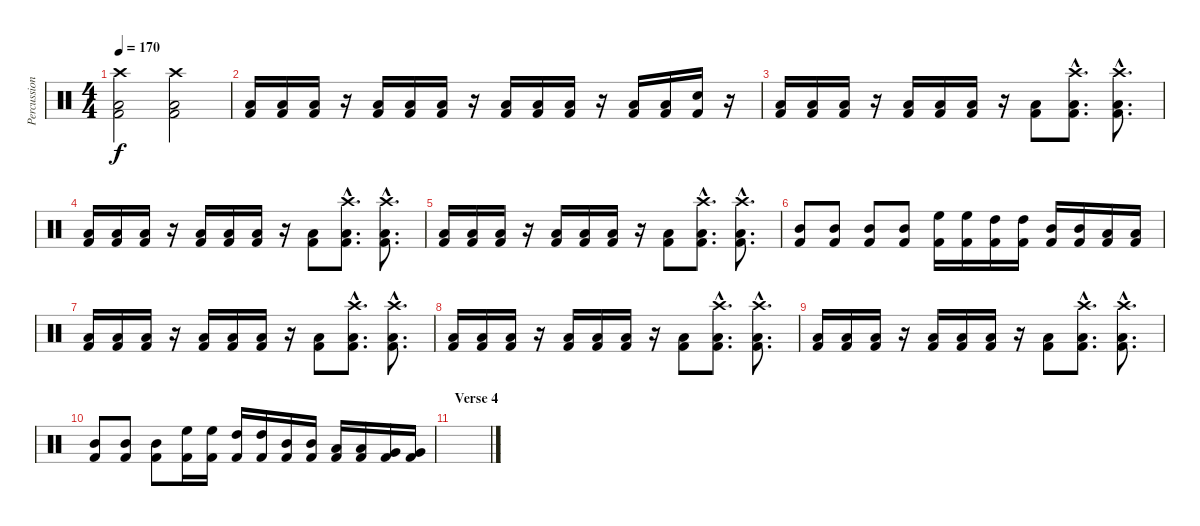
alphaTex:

\track ("Percussion" "Percussion") {instrument percussion}
\staff {score}
\articulation defaults
\ts (4 4)
\tempo 170
\clef neutral
\ks c
("Crash high (hit)" "Low Floor Tom (hit)" "Kick (hit) 2").2{dy f} ("Crash high (hit)" "Low Floor Tom (hit)" "Kick (hit) 2").2 |
("Low Floor Tom (hit)" "Kick (hit) 2").16 ("Low Floor Tom (hit)" "Kick (hit) 2").16 ("Low Floor Tom (hit)" "Kick (hit) 2").16 r.16 ("Low Floor Tom (hit)" "Kick (hit) 2").16 ("Low Floor Tom (hit)" "Kick (hit) 2").16 ("Low Floor Tom (hit)" "Kick (hit) 2").16 r.16 ("Low Floor Tom (hit)" "Kick (hit) 2").16 ("Low Floor Tom (hit)" "Kick (hit) 2").16 ("Low Floor Tom (hit)" "Kick (hit) 2").16 r.16 ("Low Floor Tom (hit)" "Kick (hit) 2").16 ("Low Floor Tom (hit)" "Kick (hit) 2").16 ("Snare (hit)" "Kick (hit) 2").16 r.16 |
("Low Floor Tom (hit)" "Kick (hit) 2").16 ("Low Floor Tom (hit)" "Kick (hit) 2").16 ("Low Floor Tom (hit)" "Kick (hit) 2").16 r.16 ("Low Floor Tom (hit)" "Kick (hit) 2").16 ("Low Floor Tom (hit)" "Kick (hit) 2").16 ("Low Floor Tom (hit)" "Kick (hit) 2").16 r.16 ("Low Floor Tom (hit)" "Kick (hit) 2").8 ("Crash high (hit)"{hac} "Low Floor Tom (hit)"{hac} "Kick (hit) 2"{hac}).8{d} ("Crash high (hit)"{hac} "Low Floor Tom (hit)"{hac} "Kick (hit) 2"{hac}).8{d} |
("Low Floor Tom (hit)" "Kick (hit) 2").16 ("Low Floor Tom (hit)" "Kick (hit) 2").16 ("Low Floor Tom (hit)" "Kick (hit) 2").16 r.16 ("Low Floor Tom (hit)" "Kick (hit) 2").16 ("Low Floor Tom (hit)" "Kick (hit) 2").16 ("Low Floor Tom (hit)" "Kick (hit) 2").16 r.16 ("Low Floor Tom (hit)" "Kick (hit) 2").8 ("Crash high (hit)"{hac} "Low Floor Tom (hit)"{hac} "Kick (hit) 2"{hac}).8{d} ("Crash high (hit)"{hac} "Low Floor Tom (hit)"{hac} "Kick (hit) 2"{hac}).8{d} |
("Low Floor Tom (hit)" "Kick (hit) 2").16 ("Low Floor Tom (hit)" "Kick (hit) 2").16 ("Low Floor Tom (hit)" "Kick (hit) 2").16 r.16 ("Low Floor Tom (hit)" "Kick (hit) 2").16 ("Low Floor Tom (hit)" "Kick (hit) 2").16 ("Low Floor Tom (hit)" "Kick (hit) 2").16 r.16 ("Low Floor Tom (hit)" "Kick (hit) 2").8 ("Crash high (hit)"{hac} "Low Floor Tom (hit)"{hac} "Kick (hit) 2"{hac}).8{d} ("Crash high (hit)"{hac} "Low Floor Tom (hit)"{hac} "Kick (hit) 2"{hac}).8{d} |
("Mid Tom (hit)" "Kick (hit) 2").8 ("Mid Tom (hit)" "Kick (hit) 2").8 ("Mid Tom (hit)" "Kick (hit) 2").8 ("Mid Tom (hit)" "Kick (hit) 2").8 ("High Floor Tom (hit)" "Kick (hit) 2").16 ("High Floor Tom (hit)" "Kick (hit) 2").16 ("High Tom (hit)" "Kick (hit) 2").16 ("High Tom (hit)" "Kick (hit) 2").16 ("Mid Tom (hit)" "Kick (hit) 2").16 ("Mid Tom (hit)" "Kick (hit) 2").16 ("Low Tom (hit)" "Kick (hit) 2").16 ("Low Tom (hit)" "Kick (hit) 2").16 |
("Low Floor Tom (hit)" "Kick (hit) 2").16 ("Low Floor Tom (hit)" "Kick (hit) 2").16 ("Low Floor Tom (hit)" "Kick (hit) 2").16 r.16 ("Low Floor Tom (hit)" "Kick (hit) 2").16 ("Low Floor Tom (hit)" "Kick (hit) 2").16 ("Low Floor Tom (hit)" "Kick (hit) 2").16 r.16 ("Low Floor Tom (hit)" "Kick (hit) 2").8 ("Crash high (hit)"{hac} "Low Floor Tom (hit)"{hac} "Kick (hit) 2"{hac}).8{d} ("Crash high (hit)"{hac} "Low Floor Tom (hit)"{hac} "Kick (hit) 2"{hac}).8{d} |
("Low Floor Tom (hit)" "Kick (hit) 2").16 ("Low Floor Tom (hit)" "Kick (hit) 2").16 ("Low Floor Tom (hit)" "Kick (hit) 2").16 r.16 ("Low Floor Tom (hit)" "Kick (hit) 2").16 ("Low Floor Tom (hit)" "Kick (hit) 2").16 ("Low Floor Tom (hit)" "Kick (hit) 2").16 r.16 ("Low Floor Tom (hit)" "Kick (hit) 2").8 ("Crash high (hit)"{hac} "Low Floor Tom (hit)"{hac} "Kick (hit) 2"{hac}).8{d} ("Crash high (hit)"{hac} "Low Floor Tom (hit)"{hac} "Kick (hit) 2"{hac}).8{d} |
("Low Floor Tom (hit)" "Kick (hit) 2").16 ("Low Floor Tom (hit)" "Kick (hit) 2").16 ("Low Floor Tom (hit)" "Kick (hit) 2").16 r.16 ("Low Floor Tom (hit)" "Kick (hit) 2").16 ("Low Floor Tom (hit)" "Kick (hit) 2").16 ("Low Floor Tom (hit)" "Kick (hit) 2").16 r.16 ("Low Floor Tom (hit)" "Kick (hit) 2").8 ("Crash high (hit)"{hac} "Low Floor Tom (hit)"{hac} "Kick (hit) 2"{hac}).8{d} ("Crash high (hit)"{hac} "Low Floor Tom (hit)"{hac} "Kick (hit) 2"{hac}).8{d} |
("Mid Tom (hit)" "Kick (hit) 2").8 ("Mid Tom (hit)" "Kick (hit) 2").8 ("Mid Tom (hit)" "Kick (hit) 2").8 ("High Floor Tom (hit)" "Kick (hit) 2").16 ("High Floor Tom (hit)" "Kick (hit) 2").16 ("High Tom (hit)" "Kick (hit) 2").16 ("High Tom (hit)" "Kick (hit) 2").16 ("Mid Tom (hit)" "Kick (hit) 2").16 ("Mid Tom (hit)" "Kick (hit) 2").16 ("Low Tom (hit)" "Kick (hit) 2").16 ("Low Tom (hit)" "Kick (hit) 2").16 ("Very Low Tom (hit)" "Kick (hit) 2").16 ("Very Low Tom (hit)" "Kick (hit) 2").16 |
\section ("" "Verse 4")
